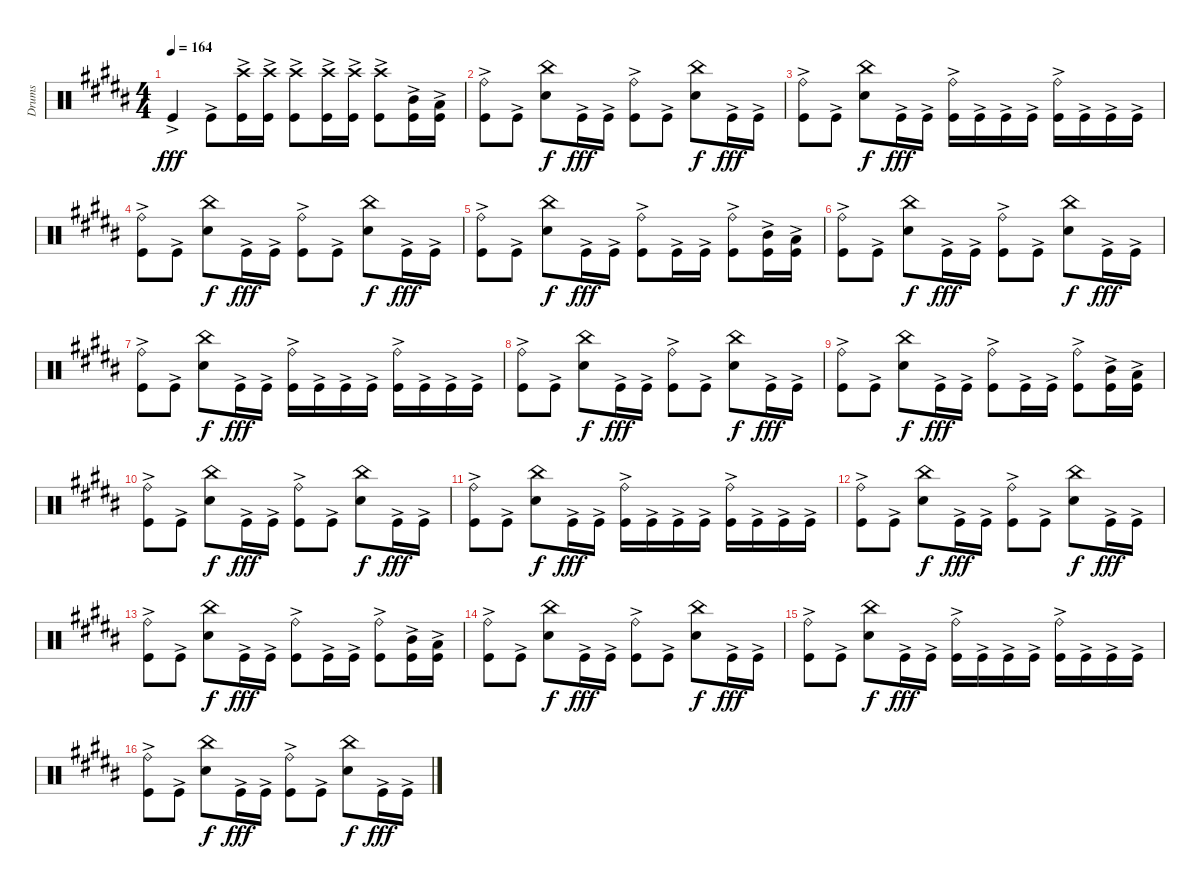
\track ("Drums" "Drums") {instrument percussion}
\staff {score}
\articulation defaults
\ts (4 4)
\tempo 164
\clef neutral
\ks g#minor "Kick (hit)"{ac}.4{dy fff} "Kick (hit)"{ac}.8
("Crash high (hit)" "Kick (hit)"{ac}).16 ("Crash high (hit)" "Kick (hit)"{ac}).16 ("Crash high (hit)" "Kick (hit)"{ac}).8 ("Crash high (hit)" "Kick (hit)"{ac}).16 ("Crash high (hit)" "Kick (hit)"{ac}).16 ("Crash high (hit)" "Kick (hit)"{ac}).8 ("Mid Tom (hit)"{ac} "Kick (hit)"{ac}).16 ("Low Tom (hit)"{ac} "Kick (hit)"{ac}).16 |
("Ride (bell)" "Kick (hit)"{ac}).8 "Kick (hit)"{ac}.8 ("China (hit)" "Snare (hit) 2").8{dy f} "Kick (hit)"{ac}.16{dy fff} "Kick (hit)"{ac}.16 ("Ride (bell)" "Kick (hit)"{ac}).8 "Kick (hit)"{ac}.8 ("China (hit)" "Snare (hit) 2").8{dy f} "Kick (hit)"{ac}.16{dy fff} "Kick (hit)"{ac}.16 |
("Ride (bell)" "Kick (hit)"{ac}).8 "Kick (hit)"{ac}.8 ("China (hit)" "Snare (hit) 2").8{dy f} "Kick (hit)"{ac}.16{dy fff} "Kick (hit)"{ac}.16 ("Ride (bell)" "Kick (hit)"{ac}).16 "Kick (hit)"{ac}.16 "Kick (hit)"{ac}.16 "Kick (hit)"{ac}.16 ("Ride (bell)" "Kick (hit)"{ac}).16 "Kick (hit)"{ac}.16 "Kick (hit)"{ac}.16 "Kick (hit)"{ac}.16 |
("Ride (bell)" "Kick (hit)"{ac}).8 "Kick (hit)"{ac}.8 ("China (hit)" "Snare (hit) 2").8{dy f} "Kick (hit)"{ac}.16{dy fff} "Kick (hit)"{ac}.16 ("Ride (bell)" "Kick (hit)"{ac}).8 "Kick (hit)"{ac}.8 ("China (hit)" "Snare (hit) 2").8{dy f} "Kick (hit)"{ac}.16{dy fff} "Kick (hit)"{ac}.16 |
("Ride (bell)" "Kick (hit)"{ac}).8 "Kick (hit)"{ac}.8 ("China (hit)" "Snare (hit) 2").8{dy f} "Kick (hit)"{ac}.16{dy fff} "Kick (hit)"{ac}.16 ("Ride (bell)" "Kick (hit)"{ac}).8 "Kick (hit)"{ac}.16 "Kick (hit)"{ac}.16 ("Ride (bell)" "Kick (hit)"{ac}).8 ("Mid Tom (hit)"{ac} "Kick (hit)"{ac}).16 ("Low Tom (hit)"{ac} "Kick (hit)"{ac}).16 |
("Ride (bell)" "Kick (hit)"{ac}).8 "Kick (hit)"{ac}.8 ("China (hit)" "Snare (hit) 2").8{dy f} "Kick (hit)"{ac}.16{dy fff} "Kick (hit)"{ac}.16 ("Ride (bell)" "Kick (hit)"{ac}).8 "Kick (hit)"{ac}.8 ("China (hit)" "Snare (hit) 2").8{dy f} "Kick (hit)"{ac}.16{dy fff} "Kick (hit)"{ac}.16 |
("Ride (bell)" "Kick (hit)"{ac}).8 "Kick (hit)"{ac}.8 ("China (hit)" "Snare (hit) 2").8{dy f} "Kick (hit)"{ac}.16{dy fff} "Kick (hit)"{ac}.16 ("Ride (bell)" "Kick (hit)"{ac}).16 "Kick (hit)"{ac}.16 "Kick (hit)"{ac}.16 "Kick (hit)"{ac}.16 ("Ride (bell)" "Kick (hit)"{ac}).16 "Kick (hit)"{ac}.16 "Kick (hit)"{ac}.16 "Kick (hit)"{ac}.16 |
("Ride (bell)" "Kick (hit)"{ac}).8 "Kick (hit)"{ac}.8 ("China (hit)" "Snare (hit) 2").8{dy f} "Kick (hit)"{ac}.16{dy fff} "Kick (hit)"{ac}.16 ("Ride (bell)" "Kick (hit)"{ac}).8 "Kick (hit)"{ac}.8 ("China (hit)" "Snare (hit) 2").8{dy f} "Kick (hit)"{ac}.16{dy fff} "Kick (hit)"{ac}.16 |
("Ride (bell)" "Kick (hit)"{ac}).8 "Kick (hit)"{ac}.8 ("China (hit)" "Snare (hit) 2").8{dy f} "Kick (hit)"{ac}.16{dy fff} "Kick (hit)"{ac}.16 ("Ride (bell)" "Kick (hit)"{ac}).8 "Kick (hit)"{ac}.16 "Kick (hit)"{ac}.16 ("Ride (bell)" "Kick (hit)"{ac}).8 ("Mid Tom (hit)"{ac} "Kick (hit)"{ac}).16 ("Low Tom (hit)"{ac} "Kick (hit)"{ac}).16 |
("Ride (bell)" "Kick (hit)"{ac}).8 "Kick (hit)"{ac}.8 ("China (hit)" "Snare (hit) 2").8{dy f} "Kick (hit)"{ac}.16{dy fff} "Kick (hit)"{ac}.16 ("Ride (bell)" "Kick (hit)"{ac}).8 "Kick (hit)"{ac}.8 ("China (hit)" "Snare (hit) 2").8{dy f} "Kick (hit)"{ac}.16{dy fff} "Kick (hit)"{ac}.16 |
("Ride (bell)" "Kick (hit)"{ac}).8 "Kick (hit)"{ac}.8 ("China (hit)" "Snare (hit) 2").8{dy f} "Kick (hit)"{ac}.16{dy fff} "Kick (hit)"{ac}.16 ("Ride (bell)" "Kick (hit)"{ac}).16 "Kick (hit)"{ac}.16 "Kick (hit)"{ac}.16 "Kick (hit)"{ac}.16 ("Ride (bell)" "Kick (hit)"{ac}).16 "Kick (hit)"{ac}.16 "Kick (hit)"{ac}.16 "Kick (hit)"{ac}.16 |
("Ride (bell)" "Kick (hit)"{ac}).8 "Kick (hit)"{ac}.8 ("China (hit)" "Snare (hit) 2").8{dy f} "Kick (hit)"{ac}.16{dy fff} "Kick (hit)"{ac}.16 ("Ride (bell)" "Kick (hit)"{ac}).8 "Kick (hit)"{ac}.8 ("China (hit)" "Snare (hit) 2").8{dy f} "Kick (hit)"{ac}.16{dy fff} "Kick (hit)"{ac}.16 |
("Ride (bell)" "Kick (hit)"{ac}).8 "Kick (hit)"{ac}.8 ("China (hit)" "Snare (hit) 2").8{dy f} "Kick (hit)"{ac}.16{dy fff} "Kick (hit)"{ac}.16 ("Ride (bell)" "Kick (hit)"{ac}).8 "Kick (hit)"{ac}.16 "Kick (hit)"{ac}.16 ("Ride (bell)" "Kick (hit)"{ac}).8 ("Mid Tom (hit)"{ac} "Kick (hit)"{ac}).16 ("Low Tom (hit)"{ac} "Kick (hit)"{ac}).16 |
("Ride (bell)" "Kick (hit)"{ac}).8 "Kick (hit)"{ac}.8 ("China (hit)" "Snare (hit) 2").8{dy f} "Kick (hit)"{ac}.16{dy fff} "Kick (hit)"{ac}.16 ("Ride (bell)" "Kick (hit)"{ac}).8 "Kick (hit)"{ac}.8 ("China (hit)" "Snare (hit) 2").8{dy f} "Kick (hit)"{ac}.16{dy fff} "Kick (hit)"{ac}.16 |
("Ride (bell)" "Kick (hit)"{ac}).8 "Kick (hit)"{ac}.8 ("China (hit)" "Snare (hit) 2").8{dy f} "Kick (hit)"{ac}.16{dy fff} "Kick (hit)"{ac}.16 ("Ride (bell)" "Kick (hit)"{ac}).16 "Kick (hit)"{ac}.16 "Kick (hit)"{ac}.16 "Kick (hit)"{ac}.16 ("Ride (bell)" "Kick (hit)"{ac}).16 "Kick (hit)"{ac}.16 "Kick (hit)"{ac}.16 "Kick (hit)"{ac}.16 |
("Ride (bell)" "Kick (hit)"{ac}).8 "Kick (hit)"{ac}.8 ("China (hit)" "Snare (hit) 2").8{dy f} "Kick (hit)"{ac}.16{dy fff} "Kick (hit)"{ac}.16 ("Ride (bell)" "Kick (hit)"{ac}).8 "Kick (hit)"{ac}.8 ("China (hit)" "Snare (hit) 2").8{dy f} "Kick (hit)"{ac}.16{dy fff} "Kick (hit)"{ac}.16
